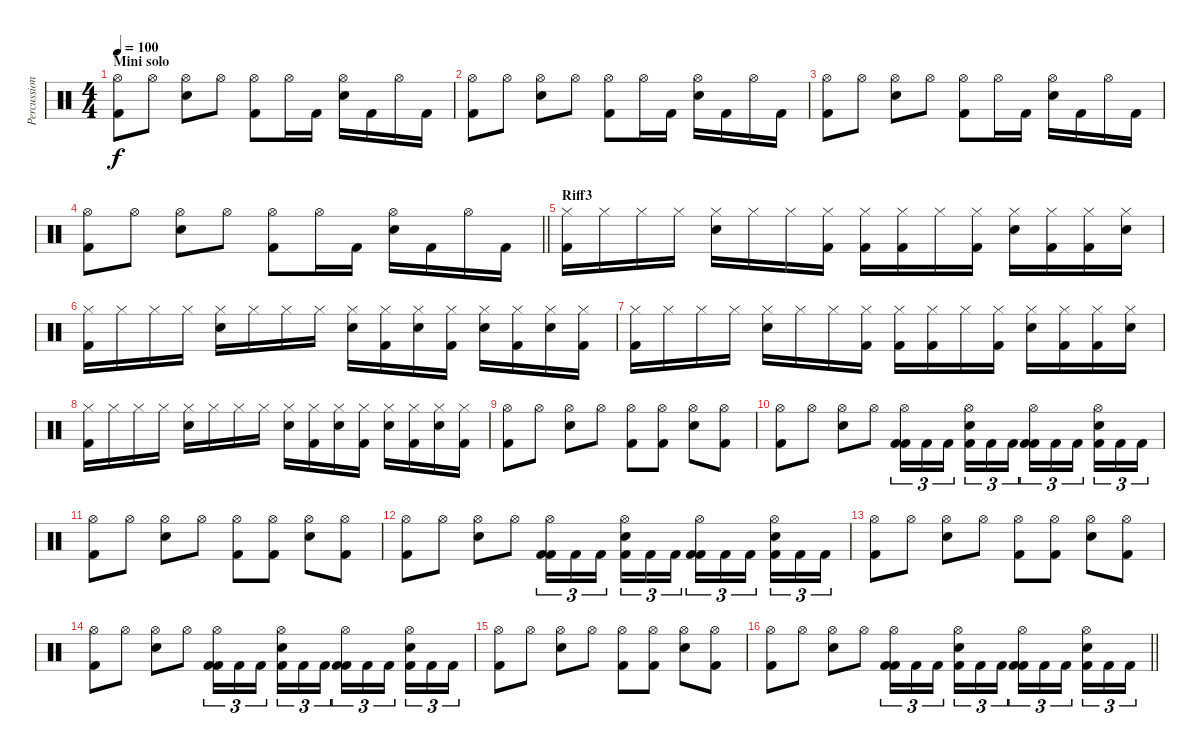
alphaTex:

\track ("Percussion" "Percussion") {instrument percussion}
\staff {score}
\articulation defaults
\ts (4 4)
\section ("" "Mini solo")
\tempo 100
\clef neutral
\ks c
("Hi-Hat (open)" "Kick (hit) 2").8{dy f} "Hi-Hat (open)".8 ("Hi-Hat (open)" "Electric Snare (hit)").8 "Hi-Hat (open)".8 ("Hi-Hat (open)" "Kick (hit) 2").8 "Hi-Hat (open)".16 "Kick (hit) 2".16 ("Hi-Hat (open)" "Electric Snare (hit)").16 "Kick (hit) 2".16 "Hi-Hat (open)".16 "Kick (hit) 2".16 |
("Hi-Hat (open)" "Kick (hit) 2").8 "Hi-Hat (open)".8 ("Hi-Hat (open)" "Electric Snare (hit)").8 "Hi-Hat (open)".8 ("Hi-Hat (open)" "Kick (hit) 2").8 "Hi-Hat (open)".16 "Kick (hit) 2".16 ("Hi-Hat (open)" "Electric Snare (hit)").16 "Kick (hit) 2".16 "Hi-Hat (open)".16 "Kick (hit) 2".16 |
("Hi-Hat (open)" "Kick (hit) 2").8 "Hi-Hat (open)".8 ("Hi-Hat (open)" "Electric Snare (hit)").8 "Hi-Hat (open)".8 ("Hi-Hat (open)" "Kick (hit) 2").8 "Hi-Hat (open)".16 "Kick (hit) 2".16 ("Hi-Hat (open)" "Electric Snare (hit)").16 "Kick (hit) 2".16 "Hi-Hat (open)".16 "Kick (hit) 2".16 |
\barLineRight lightlight
("Hi-Hat (open)" "Kick (hit) 2").8 "Hi-Hat (open)".8 ("Hi-Hat (open)" "Electric Snare (hit)").8 "Hi-Hat (open)".8 ("Hi-Hat (open)" "Kick (hit) 2").8 "Hi-Hat (open)".16 "Kick (hit) 2".16 ("Hi-Hat (open)" "Electric Snare (hit)").16 "Kick (hit) 2".16 "Hi-Hat (open)".16 "Kick (hit) 2".16 |
\section ("" "Riff3")
("Hi-Hat (closed)" "Kick (hit) 2").16 "Hi-Hat (closed)".16 "Hi-Hat (closed)".16 "Hi-Hat (closed)".16 ("Hi-Hat (closed)" "Electric Snare (hit)").16 "Hi-Hat (closed)".16 "Hi-Hat (closed)".16 ("Hi-Hat (closed)" "Kick (hit) 2").16 ("Hi-Hat (closed)" "Kick (hit) 2").16 ("Hi-Hat (closed)" "Kick (hit) 2").16 "Hi-Hat (closed)".16 ("Hi-Hat (closed)" "Kick (hit) 2").16 ("Hi-Hat (closed)" "Electric Snare (hit)").16 ("Hi-Hat (closed)" "Kick (hit) 2").16 ("Hi-Hat (closed)" "Kick (hit) 2").16 ("Hi-Hat (closed)" "Electric Snare (hit)").16 |
("Hi-Hat (closed)" "Kick (hit) 2").16 "Hi-Hat (closed)".16 "Hi-Hat (closed)".16 "Hi-Hat (closed)".16 ("Hi-Hat (closed)" "Electric Snare (hit)").16 "Hi-Hat (closed)".16 "Hi-Hat (closed)".16 "Hi-Hat (closed)".16 ("Hi-Hat (closed)" "Electric Snare (hit)").16 ("Hi-Hat (closed)" "Kick (hit) 2").16 ("Hi-Hat (closed)" "Electric Snare (hit)").16 ("Hi-Hat (closed)" "Kick (hit) 2").16 ("Hi-Hat (closed)" "Electric Snare (hit)").16 ("Hi-Hat (closed)" "Kick (hit) 2").16 ("Hi-Hat (closed)" "Electric Snare (hit)").16 ("Hi-Hat (closed)" "Kick (hit) 2").16 |
("Hi-Hat (closed)" "Kick (hit) 2").16 "Hi-Hat (closed)".16 "Hi-Hat (closed)".16 "Hi-Hat (closed)".16 ("Hi-Hat (closed)" "Electric Snare (hit)").16 "Hi-Hat (closed)".16 "Hi-Hat (closed)".16 ("Hi-Hat (closed)" "Kick (hit) 2").16 ("Hi-Hat (closed)" "Kick (hit) 2").16 ("Hi-Hat (closed)" "Kick (hit) 2").16 "Hi-Hat (closed)".16 ("Hi-Hat (closed)" "Kick (hit) 2").16 ("Hi-Hat (closed)" "Electric Snare (hit)").16 ("Hi-Hat (closed)" "Kick (hit) 2").16 ("Hi-Hat (closed)" "Kick (hit) 2").16 ("Hi-Hat (closed)" "Electric Snare (hit)").16 |
("Hi-Hat (closed)" "Kick (hit) 2").16 "Hi-Hat (closed)".16 "Hi-Hat (closed)".16 "Hi-Hat (closed)".16 ("Hi-Hat (closed)" "Electric Snare (hit)").16 "Hi-Hat (closed)".16 "Hi-Hat (closed)".16 "Hi-Hat (closed)".16 ("Hi-Hat (closed)" "Electric Snare (hit)").16 ("Hi-Hat (closed)" "Kick (hit) 2").16 ("Hi-Hat (closed)" "Electric Snare (hit)").16 ("Hi-Hat (closed)" "Kick (hit) 2").16 ("Hi-Hat (closed)" "Electric Snare (hit)").16 ("Hi-Hat (closed)" "Kick (hit) 2").16 ("Hi-Hat (closed)" "Electric Snare (hit)").16 ("Hi-Hat (closed)" "Kick (hit) 2").16 |
("Hi-Hat (open)" "Kick (hit) 2").8 "Hi-Hat (open)".8 ("Hi-Hat (open)" "Electric Snare (hit)").8 "Hi-Hat (open)".8 ("Hi-Hat (open)" "Kick (hit) 2").8 ("Hi-Hat (open)" "Kick (hit) 2").8 ("Hi-Hat (open)" "Electric Snare (hit)").8 ("Hi-Hat (open)" "Kick (hit) 2").8 |
("Hi-Hat (open)" "Kick (hit) 2").8 "Hi-Hat (open)".8 ("Hi-Hat (open)" "Electric Snare (hit)").8 "Hi-Hat (open)".8 ("Kick (hit) 2" "Kick (hit) 2" "Hi-Hat (open)").16{tu (3 2)} "Kick (hit) 2".16{tu (3 2)} "Kick (hit) 2".16{tu (3 2) beam splitsecondary} ("Electric Snare (hit)" "Kick (hit) 2" "Hi-Hat (open)").16{tu (3 2)} "Kick (hit) 2".16{tu (3 2)} "Kick (hit) 2".16{tu (3 2)} ("Kick (hit) 2" "Kick (hit) 2" "Hi-Hat (open)").16{tu (3 2)} "Kick (hit) 2".16{tu (3 2)} "Kick (hit) 2".16{tu (3 2) beam splitsecondary} ("Electric Snare (hit)" "Kick (hit) 2" "Hi-Hat (open)").16{tu (3 2)} "Kick (hit) 2".16{tu (3 2)} "Kick (hit) 2".16{tu (3 2)} |
("Hi-Hat (open)" "Kick (hit) 2").8 "Hi-Hat (open)".8 ("Hi-Hat (open)" "Electric Snare (hit)").8 "Hi-Hat (open)".8 ("Hi-Hat (open)" "Kick (hit) 2").8 ("Hi-Hat (open)" "Kick (hit) 2").8 ("Hi-Hat (open)" "Electric Snare (hit)").8 ("Hi-Hat (open)" "Kick (hit) 2").8 |
("Hi-Hat (open)" "Kick (hit) 2").8 "Hi-Hat (open)".8 ("Hi-Hat (open)" "Electric Snare (hit)").8 "Hi-Hat (open)".8 ("Kick (hit) 2" "Kick (hit) 2" "Hi-Hat (open)").16{tu (3 2)} "Kick (hit) 2".16{tu (3 2)} "Kick (hit) 2".16{tu (3 2) beam splitsecondary} ("Electric Snare (hit)" "Kick (hit) 2" "Hi-Hat (open)").16{tu (3 2)} "Kick (hit) 2".16{tu (3 2)} "Kick (hit) 2".16{tu (3 2)} ("Kick (hit) 2" "Kick (hit) 2" "Hi-Hat (open)").16{tu (3 2)} "Kick (hit) 2".16{tu (3 2)} "Kick (hit) 2".16{tu (3 2) beam splitsecondary} ("Electric Snare (hit)" "Kick (hit) 2" "Hi-Hat (open)").16{tu (3 2)} "Kick (hit) 2".16{tu (3 2)} "Kick (hit) 2".16{tu (3 2)} |
("Hi-Hat (open)" "Kick (hit) 2").8 "Hi-Hat (open)".8 ("Hi-Hat (open)" "Electric Snare (hit)").8 "Hi-Hat (open)".8 ("Hi-Hat (open)" "Kick (hit) 2").8 ("Hi-Hat (open)" "Kick (hit) 2").8 ("Hi-Hat (open)" "Electric Snare (hit)").8 ("Hi-Hat (open)" "Kick (hit) 2").8 |
("Hi-Hat (open)" "Kick (hit) 2").8 "Hi-Hat (open)".8 ("Hi-Hat (open)" "Electric Snare (hit)").8 "Hi-Hat (open)".8 ("Kick (hit) 2" "Kick (hit) 2" "Hi-Hat (open)").16{tu (3 2)} "Kick (hit) 2".16{tu (3 2)} "Kick (hit) 2".16{tu (3 2) beam splitsecondary} ("Electric Snare (hit)" "Kick (hit) 2" "Hi-Hat (open)").16{tu (3 2)} "Kick (hit) 2".16{tu (3 2)} "Kick (hit) 2".16{tu (3 2)} ("Kick (hit) 2" "Kick (hit) 2" "Hi-Hat (open)").16{tu (3 2)} "Kick (hit) 2".16{tu (3 2)} "Kick (hit) 2".16{tu (3 2) beam splitsecondary} ("Electric Snare (hit)" "Kick (hit) 2" "Hi-Hat (open)").16{tu (3 2)} "Kick (hit) 2".16{tu (3 2)} "Kick (hit) 2".16{tu (3 2)} |
("Hi-Hat (open)" "Kick (hit) 2").8 "Hi-Hat (open)".8 ("Hi-Hat (open)" "Electric Snare (hit)").8 "Hi-Hat (open)".8 ("Hi-Hat (open)" "Kick (hit) 2").8 ("Hi-Hat (open)" "Kick (hit) 2").8 ("Hi-Hat (open)" "Electric Snare (hit)").8 ("Hi-Hat (open)" "Kick (hit) 2").8 |
\barLineRight lightlight
("Hi-Hat (open)" "Kick (hit) 2").8 "Hi-Hat (open)".8 ("Hi-Hat (open)" "Electric Snare (hit)").8 "Hi-Hat (open)".8 ("Kick (hit) 2" "Kick (hit) 2" "Hi-Hat (open)").16{tu (3 2)} "Kick (hit) 2".16{tu (3 2)} "Kick (hit) 2".16{tu (3 2) beam splitsecondary} ("Electric Snare (hit)" "Kick (hit) 2" "Hi-Hat (open)").16{tu (3 2)} "Kick (hit) 2".16{tu (3 2)} "Kick (hit) 2".16{tu (3 2)} ("Kick (hit) 2" "Kick (hit) 2" "Hi-Hat (open)").16{tu (3 2)} "Kick (hit) 2".16{tu (3 2)} "Kick (hit) 2".16{tu (3 2) beam splitsecondary} ("Electric Snare (hit)" "Kick (hit) 2" "Hi-Hat (open)").16{tu (3 2)} "Kick (hit) 2".16{tu (3 2)} "Kick (hit) 2".16{tu (3 2)}
